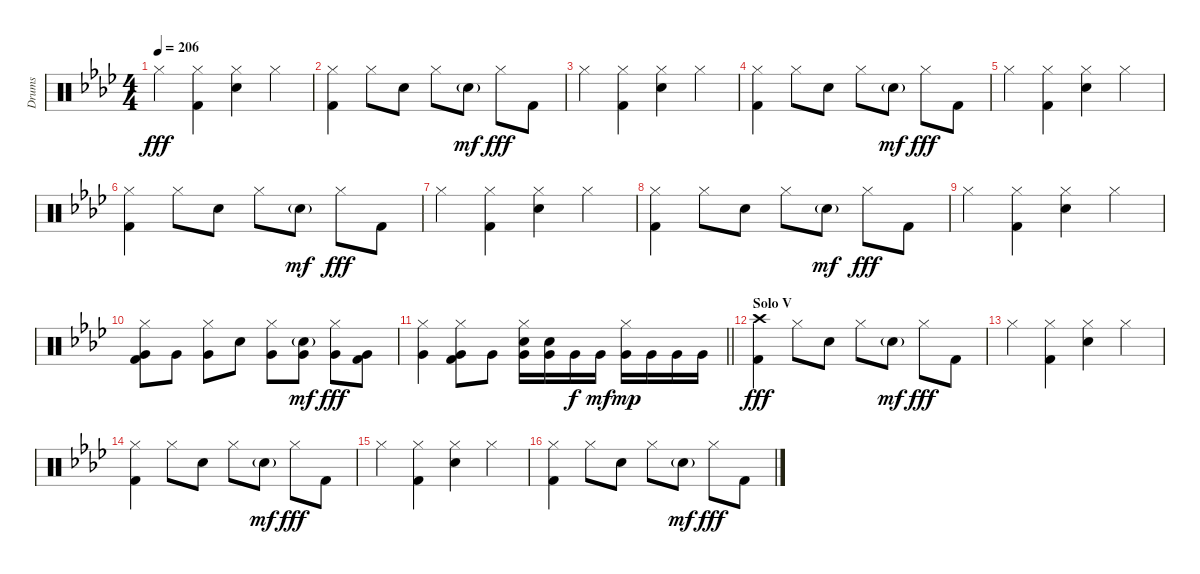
\track ("Drums" "Drums") {instrument percussion}
\staff {score}
\articulation defaults
\ts (4 4)
\tempo 206
\clef neutral
\ks ab "Hi-Hat (closed)".4{dy fff}
("Hi-Hat (closed)" "Kick (hit) 2").4 ("Hi-Hat (closed)" "Electric Snare (hit)").4 "Hi-Hat (closed)".4 |
("Hi-Hat (closed)" "Kick (hit) 2").4 "Hi-Hat (closed)".8 "Electric Snare (hit)".8 "Hi-Hat (closed)".8 "Electric Snare (hit)"{g}.8{dy mf} "Hi-Hat (closed)".8{dy fff} "Kick (hit) 2".8 |
"Hi-Hat (closed)".4 ("Hi-Hat (closed)" "Kick (hit) 2").4 ("Hi-Hat (closed)" "Electric Snare (hit)").4 "Hi-Hat (closed)".4 |
("Hi-Hat (closed)" "Kick (hit) 2").4 "Hi-Hat (closed)".8 "Electric Snare (hit)".8 "Hi-Hat (closed)".8 "Electric Snare (hit)"{g}.8{dy mf} "Hi-Hat (closed)".8{dy fff} "Kick (hit) 2".8 |
"Hi-Hat (closed)".4 ("Hi-Hat (closed)" "Kick (hit) 2").4 ("Hi-Hat (closed)" "Electric Snare (hit)").4 "Hi-Hat (closed)".4 |
("Hi-Hat (closed)" "Kick (hit) 2").4 "Hi-Hat (closed)".8 "Electric Snare (hit)".8 "Hi-Hat (closed)".8 "Electric Snare (hit)"{g}.8{dy mf} "Hi-Hat (closed)".8{dy fff} "Kick (hit) 2".8 |
"Hi-Hat (closed)".4 ("Hi-Hat (closed)" "Kick (hit) 2").4 ("Hi-Hat (closed)" "Electric Snare (hit)").4 "Hi-Hat (closed)".4 |
("Hi-Hat (closed)" "Kick (hit) 2").4 "Hi-Hat (closed)".8 "Electric Snare (hit)".8 "Hi-Hat (closed)".8 "Electric Snare (hit)"{g}.8{dy mf} "Hi-Hat (closed)".8{dy fff} "Kick (hit) 2".8 |
"Hi-Hat (closed)".4 ("Hi-Hat (closed)" "Kick (hit) 2").4 ("Hi-Hat (closed)" "Electric Snare (hit)").4 "Hi-Hat (closed)".4 |
("Hi-Hat (closed)" "Very Low Tom (hit)" "Kick (hit) 2").8 "Very Low Tom (hit)".8 ("Hi-Hat (closed)" "Very Low Tom (hit)").8 "Electric Snare (hit)".8 ("Hi-Hat (closed)" "Very Low Tom (hit)").8 ("Very Low Tom (hit)" "Electric Snare (hit)"{g}).8{dy mf} ("Hi-Hat (closed)" "Very Low Tom (hit)").8{dy fff} ("Very Low Tom (hit)" "Kick (hit) 2").8 |
\barLineRight lightlight
("Hi-Hat (closed)" "Very Low Tom (hit)").4 ("Hi-Hat (closed)" "Very Low Tom (hit)" "Kick (hit) 2").8 "Very Low Tom (hit)".8 ("Hi-Hat (closed)" "Very Low Tom (hit)" "Electric Snare (hit)").16 ("Very Low Tom (hit)" "Electric Snare (hit)").16 "Very Low Tom (hit)".16{dy f} "Very Low Tom (hit)".16{dy mf} ("Hi-Hat (closed)" "Very Low Tom (hit)").16{dy mp} "Very Low Tom (hit)".16 "Very Low Tom (hit)".16 "Very Low Tom (hit)".16 |
\section ("" "Solo V")
("Crash high (hit)" "Kick (hit) 2").4{dy fff} "Hi-Hat (closed)".8 "Electric Snare (hit)".8 "Hi-Hat (closed)".8 "Electric Snare (hit)"{g}.8{dy mf} "Hi-Hat (closed)".8{dy fff} "Kick (hit) 2".8 |
"Hi-Hat (closed)".4 ("Hi-Hat (closed)" "Kick (hit) 2").4 ("Hi-Hat (closed)" "Electric Snare (hit)").4 "Hi-Hat (closed)".4 |
("Hi-Hat (closed)" "Kick (hit) 2").4 "Hi-Hat (closed)".8 "Electric Snare (hit)".8 "Hi-Hat (closed)".8 "Electric Snare (hit)"{g}.8{dy mf} "Hi-Hat (closed)".8{dy fff} "Kick (hit) 2".8 |
"Hi-Hat (closed)".4 ("Hi-Hat (closed)" "Kick (hit) 2").4 ("Hi-Hat (closed)" "Electric Snare (hit)").4 "Hi-Hat (closed)".4 |
("Hi-Hat (closed)" "Kick (hit) 2").4 "Hi-Hat (closed)".8 "Electric Snare (hit)".8 "Hi-Hat (closed)".8 "Electric Snare (hit)"{g}.8{dy mf} "Hi-Hat (closed)".8{dy fff} "Kick (hit) 2".8
